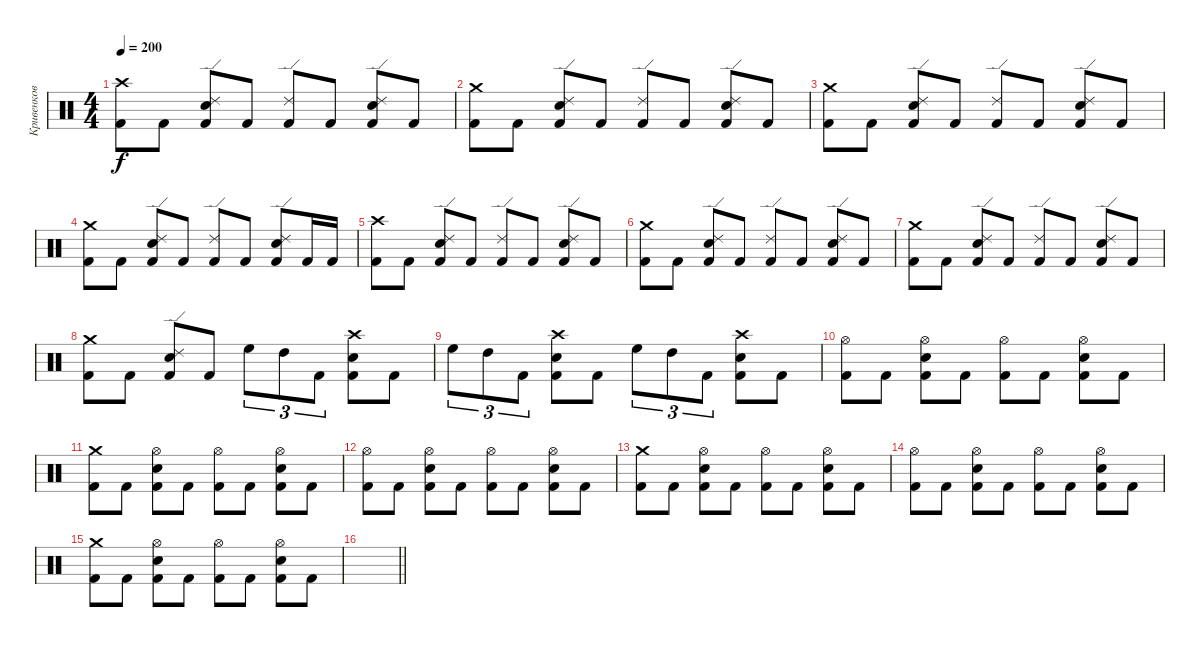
\track ("Кривенков" "Кривенков") {instrument percussion}
\staff {score}
\articulation defaults
\ts (4 4)
\tempo 200
\clef neutral
\ks c
("Crash high (hit)" "Kick (hit) 2").8{dy f} "Kick (hit) 2".8 ("Ride (edge) 2" "Electric Snare (hit)" "Kick (hit) 2").8 "Kick (hit) 2".8 ("Ride (edge) 2" "Kick (hit) 2").8 "Kick (hit) 2".8 ("Ride (edge) 2" "Electric Snare (hit)" "Kick (hit) 2").8 "Kick (hit) 2".8 |
("Crash medium (hit)" "Kick (hit) 2").8 "Kick (hit) 2".8 ("Ride (edge) 2" "Electric Snare (hit)" "Kick (hit) 2").8 "Kick (hit) 2".8 ("Ride (edge) 2" "Kick (hit) 2").8 "Kick (hit) 2".8 ("Ride (edge) 2" "Electric Snare (hit)" "Kick (hit) 2").8 "Kick (hit) 2".8 |
("Crash medium (hit)" "Kick (hit) 2").8 "Kick (hit) 2".8 ("Ride (edge) 2" "Electric Snare (hit)" "Kick (hit) 2").8 "Kick (hit) 2".8 ("Ride (edge) 2" "Kick (hit) 2").8 "Kick (hit) 2".8 ("Ride (edge) 2" "Electric Snare (hit)" "Kick (hit) 2").8 "Kick (hit) 2".8 |
("Crash medium (hit)" "Kick (hit) 2").8 "Kick (hit) 2".8 ("Ride (edge) 2" "Electric Snare (hit)" "Kick (hit) 2").8 "Kick (hit) 2".8 ("Ride (edge) 2" "Kick (hit) 2").8 "Kick (hit) 2".8 ("Ride (edge) 2" "Electric Snare (hit)" "Kick (hit) 2").8 "Kick (hit) 2".16 "Kick (hit) 2".16 |
("Crash high (hit)" "Kick (hit) 2").8 "Kick (hit) 2".8 ("Ride (edge) 2" "Electric Snare (hit)" "Kick (hit) 2").8 "Kick (hit) 2".8 ("Ride (edge) 2" "Kick (hit) 2").8 "Kick (hit) 2".8 ("Ride (edge) 2" "Electric Snare (hit)" "Kick (hit) 2").8 "Kick (hit) 2".8 |
("Crash medium (hit)" "Kick (hit) 2").8 "Kick (hit) 2".8 ("Ride (edge) 2" "Electric Snare (hit)" "Kick (hit) 2").8 "Kick (hit) 2".8 ("Ride (edge) 2" "Kick (hit) 2").8 "Kick (hit) 2".8 ("Ride (edge) 2" "Electric Snare (hit)" "Kick (hit) 2").8 "Kick (hit) 2".8 |
("Crash medium (hit)" "Kick (hit) 2").8 "Kick (hit) 2".8 ("Ride (edge) 2" "Electric Snare (hit)" "Kick (hit) 2").8 "Kick (hit) 2".8 ("Ride (edge) 2" "Kick (hit) 2").8 "Kick (hit) 2".8 ("Ride (edge) 2" "Electric Snare (hit)" "Kick (hit) 2").8 "Kick (hit) 2".8 |
("Crash medium (hit)" "Kick (hit) 2").8 "Kick (hit) 2".8 ("Ride (edge) 2" "Electric Snare (hit)" "Kick (hit) 2").8 "Kick (hit) 2".8 "High Floor Tom (hit)".8{tu (3 2)} "High Tom (hit)".8{tu (3 2)} "Kick (hit) 2".8{tu (3 2)} ("Crash high (hit)" "Electric Snare (hit)" "Kick (hit) 2").8 "Kick (hit) 2".8 |
"High Floor Tom (hit)".8{tu (3 2)} "High Tom (hit)".8{tu (3 2)} "Kick (hit) 2".8{tu (3 2)} ("Crash high (hit)" "Electric Snare (hit)" "Kick (hit) 2").8 "Kick (hit) 2".8 "High Floor Tom (hit)".8{tu (3 2)} "High Tom (hit)".8{tu (3 2)} "Kick (hit) 2".8{tu (3 2)} ("Crash high (hit)" "Electric Snare (hit)" "Kick (hit) 2").8 "Kick (hit) 2".8 |
("Hi-Hat (open)" "Kick (hit) 2").8 "Kick (hit) 2".8 ("Hi-Hat (open)" "Electric Snare (hit)" "Kick (hit) 2").8 "Kick (hit) 2".8 ("Hi-Hat (open)" "Kick (hit) 2").8 "Kick (hit) 2".8 ("Hi-Hat (open)" "Electric Snare (hit)" "Kick (hit) 2").8 "Kick (hit) 2".8 |
("Crash medium (hit)" "Kick (hit) 2").8 "Kick (hit) 2".8 ("Hi-Hat (open)" "Electric Snare (hit)" "Kick (hit) 2").8 "Kick (hit) 2".8 ("Hi-Hat (open)" "Kick (hit) 2").8 "Kick (hit) 2".8 ("Hi-Hat (open)" "Electric Snare (hit)" "Kick (hit) 2").8 "Kick (hit) 2".8 |
("Hi-Hat (open)" "Kick (hit) 2").8 "Kick (hit) 2".8 ("Hi-Hat (open)" "Electric Snare (hit)" "Kick (hit) 2").8 "Kick (hit) 2".8 ("Hi-Hat (open)" "Kick (hit) 2").8 "Kick (hit) 2".8 ("Hi-Hat (open)" "Electric Snare (hit)" "Kick (hit) 2").8 "Kick (hit) 2".8 |
("Crash medium (hit)" "Kick (hit) 2").8 "Kick (hit) 2".8 ("Hi-Hat (open)" "Electric Snare (hit)" "Kick (hit) 2").8 "Kick (hit) 2".8 ("Hi-Hat (open)" "Kick (hit) 2").8 "Kick (hit) 2".8 ("Hi-Hat (open)" "Electric Snare (hit)" "Kick (hit) 2").8 "Kick (hit) 2".8 |
("Hi-Hat (open)" "Kick (hit) 2").8 "Kick (hit) 2".8 ("Hi-Hat (open)" "Electric Snare (hit)" "Kick (hit) 2").8 "Kick (hit) 2".8 ("Hi-Hat (open)" "Kick (hit) 2").8 "Kick (hit) 2".8 ("Hi-Hat (open)" "Electric Snare (hit)" "Kick (hit) 2").8 "Kick (hit) 2".8 |
("Crash medium (hit)" "Kick (hit) 2").8 "Kick (hit) 2".8 ("Hi-Hat (open)" "Electric Snare (hit)" "Kick (hit) 2").8 "Kick (hit) 2".8 ("Hi-Hat (open)" "Kick (hit) 2").8 "Kick (hit) 2".8 ("Hi-Hat (open)" "Electric Snare (hit)" "Kick (hit) 2").8 "Kick (hit) 2".8 |
\barLineRight lightlight
